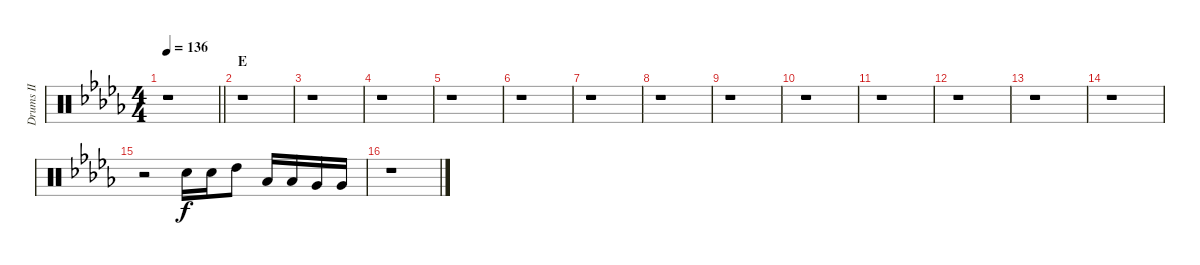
\track ("Drums II" "Drums II") {instrument percussion}
\staff {score}
\articulation defaults
\ts (4 4)
\tempo 136
\clef neutral
\barLineRight lightlight
\ks db
r.1{dy f} |
\section ("" "E")
r.1 |
r.1 |
r.1 |
r.1 |
r.1 |
r.1 |
r.1 |
r.1 |
r.1 |
r.1 |
r.1 |
r.1 |
r.1 |
r.2 "Snare (hit) 2".16 "Snare (hit) 2".16 "High Tom (hit)".8 "Low Tom (hit)".16 "Low Tom (hit)".16 "Very Low Tom (hit)".16 "Very Low Tom (hit)".16 |
r.1
